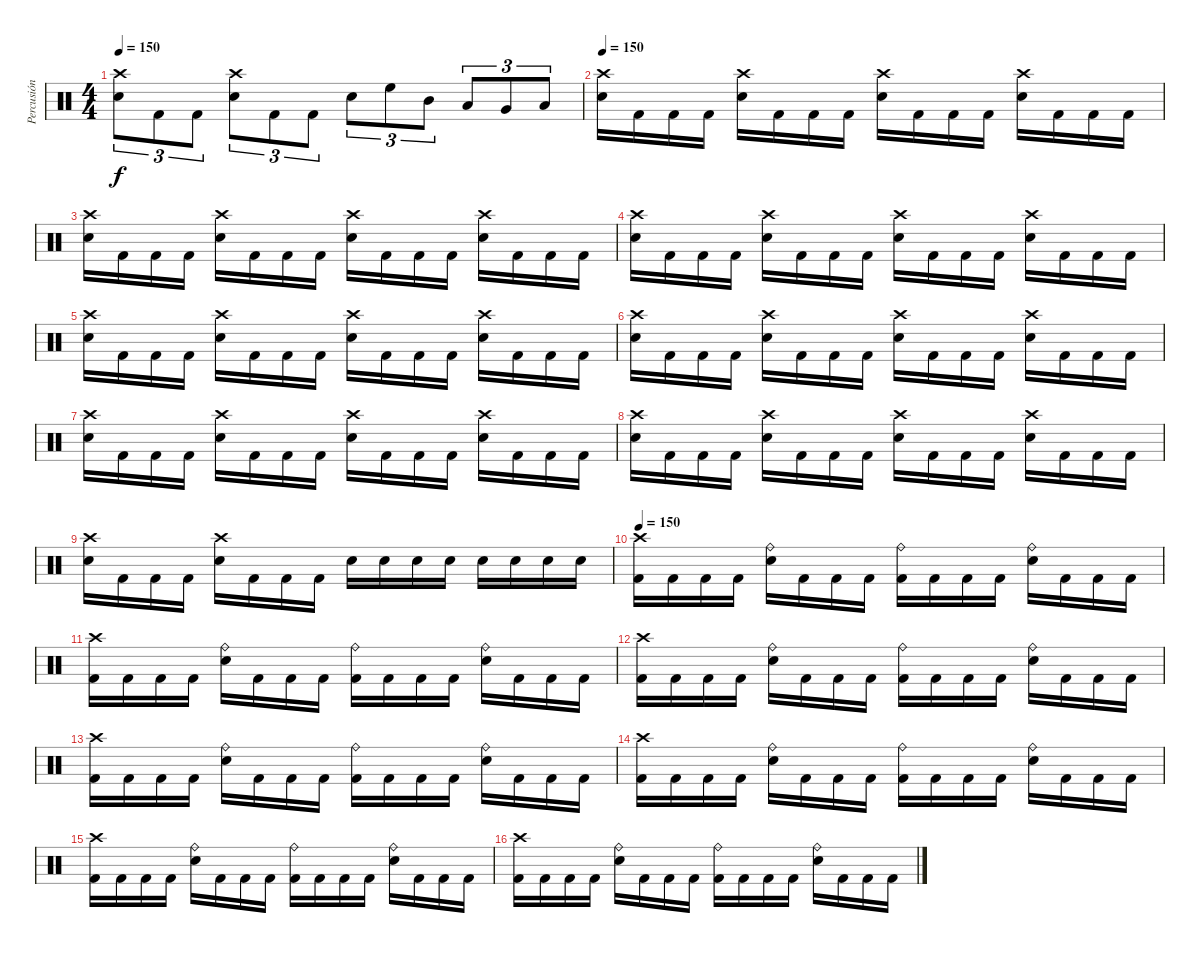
\track ("Percusión" "Percusión") {instrument percussion}
\staff {score}
\articulation defaults
\ts (4 4)
\tempo 150
\clef neutral
\ks c
("Crash high (hit)" "Electric Snare (hit)").8{tu (3 2) dy f} "Kick (hit) 2".8{tu (3 2)} "Kick (hit) 2".8{tu (3 2)} ("Crash high (hit)" "Electric Snare (hit)").8{tu (3 2)} "Kick (hit) 2".8{tu (3 2)} "Kick (hit) 2".8{tu (3 2)} "Electric Snare (hit)".8{tu (3 2)} "High Floor Tom (hit)".8{tu (3 2)} "Mid Tom (hit)".8{tu (3 2)} "Low Tom (hit)".8{tu (3 2)} "Very Low Tom (hit)".8{tu (3 2)} "Low Floor Tom (hit)".8{tu (3 2)} |
\tempo 150
("Crash high (hit)" "Electric Snare (hit)").16 "Kick (hit) 2".16 "Kick (hit) 2".16 "Kick (hit) 2".16 ("Crash high (hit)" "Electric Snare (hit)").16 "Kick (hit) 2".16 "Kick (hit) 2".16 "Kick (hit) 2".16 ("Crash high (hit)" "Electric Snare (hit)").16 "Kick (hit) 2".16 "Kick (hit) 2".16 "Kick (hit) 2".16 ("Crash high (hit)" "Electric Snare (hit)").16 "Kick (hit) 2".16 "Kick (hit) 2".16 "Kick (hit) 2".16 |
("Crash high (hit)" "Electric Snare (hit)").16 "Kick (hit) 2".16 "Kick (hit) 2".16 "Kick (hit) 2".16 ("Crash high (hit)" "Electric Snare (hit)").16 "Kick (hit) 2".16 "Kick (hit) 2".16 "Kick (hit) 2".16 ("Crash high (hit)" "Electric Snare (hit)").16 "Kick (hit) 2".16 "Kick (hit) 2".16 "Kick (hit) 2".16 ("Crash high (hit)" "Electric Snare (hit)").16 "Kick (hit) 2".16 "Kick (hit) 2".16 "Kick (hit) 2".16 |
("Crash high (hit)" "Electric Snare (hit)").16 "Kick (hit) 2".16 "Kick (hit) 2".16 "Kick (hit) 2".16 ("Crash high (hit)" "Electric Snare (hit)").16 "Kick (hit) 2".16 "Kick (hit) 2".16 "Kick (hit) 2".16 ("Crash high (hit)" "Electric Snare (hit)").16 "Kick (hit) 2".16 "Kick (hit) 2".16 "Kick (hit) 2".16 ("Crash high (hit)" "Electric Snare (hit)").16 "Kick (hit) 2".16 "Kick (hit) 2".16 "Kick (hit) 2".16 |
("Crash high (hit)" "Electric Snare (hit)").16 "Kick (hit) 2".16 "Kick (hit) 2".16 "Kick (hit) 2".16 ("Crash high (hit)" "Electric Snare (hit)").16 "Kick (hit) 2".16 "Kick (hit) 2".16 "Kick (hit) 2".16 ("Crash high (hit)" "Electric Snare (hit)").16 "Kick (hit) 2".16 "Kick (hit) 2".16 "Kick (hit) 2".16 ("Crash high (hit)" "Electric Snare (hit)").16 "Kick (hit) 2".16 "Kick (hit) 2".16 "Kick (hit) 2".16 |
("Crash high (hit)" "Electric Snare (hit)").16 "Kick (hit) 2".16 "Kick (hit) 2".16 "Kick (hit) 2".16 ("Crash high (hit)" "Electric Snare (hit)").16 "Kick (hit) 2".16 "Kick (hit) 2".16 "Kick (hit) 2".16 ("Crash high (hit)" "Electric Snare (hit)").16 "Kick (hit) 2".16 "Kick (hit) 2".16 "Kick (hit) 2".16 ("Crash high (hit)" "Electric Snare (hit)").16 "Kick (hit) 2".16 "Kick (hit) 2".16 "Kick (hit) 2".16 |
("Crash high (hit)" "Electric Snare (hit)").16 "Kick (hit) 2".16 "Kick (hit) 2".16 "Kick (hit) 2".16 ("Crash high (hit)" "Electric Snare (hit)").16 "Kick (hit) 2".16 "Kick (hit) 2".16 "Kick (hit) 2".16 ("Crash high (hit)" "Electric Snare (hit)").16 "Kick (hit) 2".16 "Kick (hit) 2".16 "Kick (hit) 2".16 ("Crash high (hit)" "Electric Snare (hit)").16 "Kick (hit) 2".16 "Kick (hit) 2".16 "Kick (hit) 2".16 |
("Crash high (hit)" "Electric Snare (hit)").16 "Kick (hit) 2".16 "Kick (hit) 2".16 "Kick (hit) 2".16 ("Crash high (hit)" "Electric Snare (hit)").16 "Kick (hit) 2".16 "Kick (hit) 2".16 "Kick (hit) 2".16 ("Crash high (hit)" "Electric Snare (hit)").16 "Kick (hit) 2".16 "Kick (hit) 2".16 "Kick (hit) 2".16 ("Crash high (hit)" "Electric Snare (hit)").16 "Kick (hit) 2".16 "Kick (hit) 2".16 "Kick (hit) 2".16 |
("Crash high (hit)" "Electric Snare (hit)").16 "Kick (hit) 2".16 "Kick (hit) 2".16 "Kick (hit) 2".16 ("Crash high (hit)" "Electric Snare (hit)").16 "Kick (hit) 2".16 "Kick (hit) 2".16 "Kick (hit) 2".16 "Electric Snare (hit)".16 "Electric Snare (hit)".16 "Electric Snare (hit)".16 "Electric Snare (hit)".16 "Electric Snare (hit)".16 "Electric Snare (hit)".16 "Electric Snare (hit)".16 "Electric Snare (hit)".16 |
\tempo 150
("Crash high (hit)" "Kick (hit) 2").16 "Kick (hit) 2".16 "Kick (hit) 2".16 "Kick (hit) 2".16 ("Ride (bell)" "Electric Snare (hit)").16 "Kick (hit) 2".16 "Kick (hit) 2".16 "Kick (hit) 2".16 ("Ride (bell)" "Kick (hit) 2").16 "Kick (hit) 2".16 "Kick (hit) 2".16 "Kick (hit) 2".16 ("Ride (bell)" "Electric Snare (hit)").16 "Kick (hit) 2".16 "Kick (hit) 2".16 "Kick (hit) 2".16 |
("Crash high (hit)" "Kick (hit) 2").16 "Kick (hit) 2".16 "Kick (hit) 2".16 "Kick (hit) 2".16 ("Ride (bell)" "Electric Snare (hit)").16 "Kick (hit) 2".16 "Kick (hit) 2".16 "Kick (hit) 2".16 ("Ride (bell)" "Kick (hit) 2").16 "Kick (hit) 2".16 "Kick (hit) 2".16 "Kick (hit) 2".16 ("Ride (bell)" "Electric Snare (hit)").16 "Kick (hit) 2".16 "Kick (hit) 2".16 "Kick (hit) 2".16 |
("Crash high (hit)" "Kick (hit) 2").16 "Kick (hit) 2".16 "Kick (hit) 2".16 "Kick (hit) 2".16 ("Ride (bell)" "Electric Snare (hit)").16 "Kick (hit) 2".16 "Kick (hit) 2".16 "Kick (hit) 2".16 ("Ride (bell)" "Kick (hit) 2").16 "Kick (hit) 2".16 "Kick (hit) 2".16 "Kick (hit) 2".16 ("Ride (bell)" "Electric Snare (hit)").16 "Kick (hit) 2".16 "Kick (hit) 2".16 "Kick (hit) 2".16 |
("Crash high (hit)" "Kick (hit) 2").16 "Kick (hit) 2".16 "Kick (hit) 2".16 "Kick (hit) 2".16 ("Ride (bell)" "Electric Snare (hit)").16 "Kick (hit) 2".16 "Kick (hit) 2".16 "Kick (hit) 2".16 ("Ride (bell)" "Kick (hit) 2").16 "Kick (hit) 2".16 "Kick (hit) 2".16 "Kick (hit) 2".16 ("Ride (bell)" "Electric Snare (hit)").16 "Kick (hit) 2".16 "Kick (hit) 2".16 "Kick (hit) 2".16 |
("Crash high (hit)" "Kick (hit) 2").16 "Kick (hit) 2".16 "Kick (hit) 2".16 "Kick (hit) 2".16 ("Ride (bell)" "Electric Snare (hit)").16 "Kick (hit) 2".16 "Kick (hit) 2".16 "Kick (hit) 2".16 ("Ride (bell)" "Kick (hit) 2").16 "Kick (hit) 2".16 "Kick (hit) 2".16 "Kick (hit) 2".16 ("Ride (bell)" "Electric Snare (hit)").16 "Kick (hit) 2".16 "Kick (hit) 2".16 "Kick (hit) 2".16 |
("Crash high (hit)" "Kick (hit) 2").16 "Kick (hit) 2".16 "Kick (hit) 2".16 "Kick (hit) 2".16 ("Ride (bell)" "Electric Snare (hit)").16 "Kick (hit) 2".16 "Kick (hit) 2".16 "Kick (hit) 2".16 ("Ride (bell)" "Kick (hit) 2").16 "Kick (hit) 2".16 "Kick (hit) 2".16 "Kick (hit) 2".16 ("Ride (bell)" "Electric Snare (hit)").16 "Kick (hit) 2".16 "Kick (hit) 2".16 "Kick (hit) 2".16 |
("Crash high (hit)" "Kick (hit) 2").16 "Kick (hit) 2".16 "Kick (hit) 2".16 "Kick (hit) 2".16 ("Ride (bell)" "Electric Snare (hit)").16 "Kick (hit) 2".16 "Kick (hit) 2".16 "Kick (hit) 2".16 ("Ride (bell)" "Kick (hit) 2").16 "Kick (hit) 2".16 "Kick (hit) 2".16 "Kick (hit) 2".16 ("Ride (bell)" "Electric Snare (hit)").16 "Kick (hit) 2".16 "Kick (hit) 2".16 "Kick (hit) 2".16
